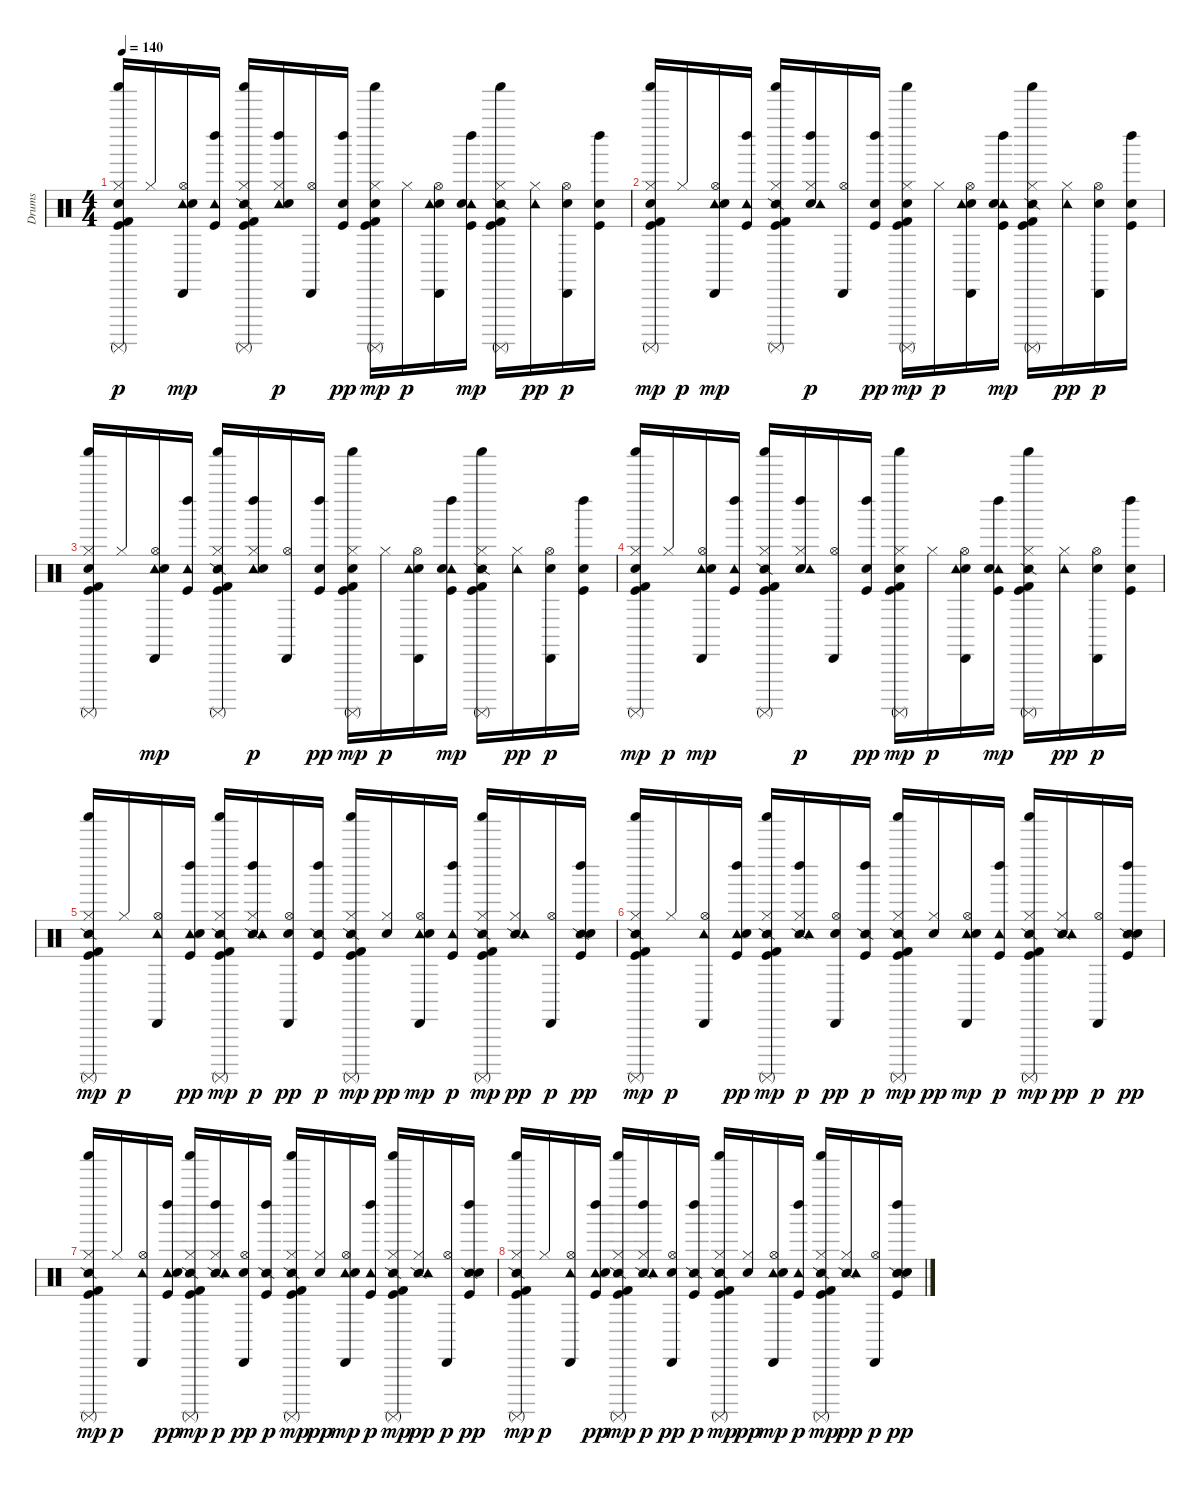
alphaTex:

\track ("Drums" "Drums") {instrument percussion}
\staff {score}
\articulation defaults
\ts (4 4)
\tempo 140
\clef neutral
\ks c
("Kick (hit)" "Kick (hit) 2" "Hi-Hat (closed)" "Shaker (hit)" "Surdo (mute)" "Snare (hit) 2").16{dy p} "Hi-Hat (closed)".16 ("Hi-Hat (open)" "Tambourine (hit)" "Cabasa (hit)" "Snare (hit) 2").16{dy mp} ("Kick (hit)" "Tambourine (hit)" "Left Maraca (hit)").16 ("Snare (side stick) 2" "Kick (hit)" "Kick (hit) 2" "Hi-Hat (closed)" "Shaker (hit)" "Surdo (mute)").16 ("Hi-Hat (closed)" "Tambourine (hit)" "Left Maraca (hit)" "Snare (hit) 2").16{dy p} ("Hi-Hat (open)" "Cabasa (hit)").16 ("Kick (hit)" "Left Maraca (hit)" "Snare (hit) 2").16{dy pp} ("Kick (hit)" "Kick (hit) 2" "Hi-Hat (closed)" "Shaker (hit)" "Surdo (mute)" "Snare (hit) 2").16{dy mp} "Hi-Hat (closed)".16{dy p} ("Hand Clap (hit)" "Hi-Hat (open)" "Tambourine (hit)" "Cabasa (hit)").16 ("Kick (hit)" "Tambourine (hit)" "Left Maraca (hit)" "Snare (hit) 2").16{dy mp} ("Snare (side stick) 2" "Kick (hit)" "Kick (hit) 2" "Hi-Hat (closed)" "Shaker (hit)" "Surdo (mute)").16 ("Hi-Hat (closed)" "Tambourine (hit)").16{dy pp} ("Hand Clap (hit)" "Hi-Hat (open)" "Cabasa (hit)").16{dy p} ("Kick (hit)" "Left Maraca (hit)" "Snare (hit) 2").16 |
("Kick (hit)" "Kick (hit) 2" "Hand Clap (hit)" "Hi-Hat (closed)" "Shaker (hit)" "Surdo (mute)").16{dy mp} "Hi-Hat (closed)".16{dy p} ("Hi-Hat (open)" "Tambourine (hit)" "Cabasa (hit)" "Snare (hit) 2").16{dy mp} ("Kick (hit)" "Tambourine (hit)" "Left Maraca (hit)").16 ("Snare (side stick) 2" "Kick (hit)" "Kick (hit) 2" "Hi-Hat (closed)" "Shaker (hit)" "Surdo (mute)").16 ("Hand Clap (hit)" "Hi-Hat (closed)" "Tambourine (hit)" "Left Maraca (hit)").16{dy p} ("Hi-Hat (open)" "Cabasa (hit)").16 ("Kick (hit)" "Left Maraca (hit)" "Snare (hit) 2").16{dy pp} ("Kick (hit)" "Kick (hit) 2" "Hi-Hat (closed)" "Shaker (hit)" "Surdo (mute)" "Snare (hit) 2").16{dy mp} "Hi-Hat (closed)".16{dy p} ("Hand Clap (hit)" "Hi-Hat (open)" "Tambourine (hit)" "Cabasa (hit)").16 ("Kick (hit)" "Tambourine (hit)" "Left Maraca (hit)" "Snare (hit) 2").16{dy mp} ("Snare (side stick) 2" "Kick (hit)" "Kick (hit) 2" "Hi-Hat (closed)" "Shaker (hit)" "Surdo (mute)").16 ("Hi-Hat (closed)" "Tambourine (hit)").16{dy pp} ("Hand Clap (hit)" "Hi-Hat (open)" "Cabasa (hit)").16{dy p} ("Kick (hit)" "Left Maraca (hit)" "Snare (hit) 2").16 |
("Kick (hit)" "Kick (hit) 2" "Hi-Hat (closed)" "Shaker (hit)" "Surdo (mute)" "Snare (hit) 2").16 "Hi-Hat (closed)".16 ("Hi-Hat (open)" "Tambourine (hit)" "Cabasa (hit)" "Snare (hit) 2").16{dy mp} ("Kick (hit)" "Tambourine (hit)" "Left Maraca (hit)").16 ("Snare (side stick) 2" "Kick (hit)" "Kick (hit) 2" "Hi-Hat (closed)" "Shaker (hit)" "Surdo (mute)").16 ("Hi-Hat (closed)" "Tambourine (hit)" "Left Maraca (hit)" "Snare (hit) 2").16{dy p} ("Hi-Hat (open)" "Cabasa (hit)").16 ("Kick (hit)" "Left Maraca (hit)" "Snare (hit) 2").16{dy pp} ("Kick (hit)" "Kick (hit) 2" "Hi-Hat (closed)" "Shaker (hit)" "Surdo (mute)" "Snare (hit) 2").16{dy mp} "Hi-Hat (closed)".16{dy p} ("Hand Clap (hit)" "Hi-Hat (open)" "Tambourine (hit)" "Cabasa (hit)").16 ("Kick (hit)" "Tambourine (hit)" "Left Maraca (hit)" "Snare (hit) 2").16{dy mp} ("Snare (side stick) 2" "Kick (hit)" "Kick (hit) 2" "Hi-Hat (closed)" "Shaker (hit)" "Surdo (mute)").16 ("Hi-Hat (closed)" "Tambourine (hit)").16{dy pp} ("Hand Clap (hit)" "Hi-Hat (open)" "Cabasa (hit)").16{dy p} ("Kick (hit)" "Left Maraca (hit)" "Snare (hit) 2").16 |
("Kick (hit)" "Kick (hit) 2" "Hand Clap (hit)" "Hi-Hat (closed)" "Shaker (hit)" "Surdo (mute)").16{dy mp} "Hi-Hat (closed)".16{dy p} ("Hi-Hat (open)" "Tambourine (hit)" "Cabasa (hit)" "Snare (hit) 2").16{dy mp} ("Kick (hit)" "Tambourine (hit)" "Left Maraca (hit)").16 ("Snare (side stick) 2" "Kick (hit)" "Kick (hit) 2" "Hi-Hat (closed)" "Shaker (hit)" "Surdo (mute)").16 ("Hand Clap (hit)" "Hi-Hat (closed)" "Tambourine (hit)" "Left Maraca (hit)").16{dy p} ("Hi-Hat (open)" "Cabasa (hit)").16 ("Kick (hit)" "Left Maraca (hit)" "Snare (hit) 2").16{dy pp} ("Kick (hit)" "Kick (hit) 2" "Hi-Hat (closed)" "Shaker (hit)" "Surdo (mute)" "Snare (hit) 2").16{dy mp} "Hi-Hat (closed)".16{dy p} ("Hand Clap (hit)" "Hi-Hat (open)" "Tambourine (hit)" "Cabasa (hit)").16 ("Kick (hit)" "Tambourine (hit)" "Left Maraca (hit)" "Snare (hit) 2").16{dy mp} ("Snare (side stick) 2" "Kick (hit)" "Kick (hit) 2" "Hi-Hat (closed)" "Shaker (hit)" "Surdo (mute)").16 ("Hi-Hat (closed)" "Tambourine (hit)").16{dy pp} ("Hand Clap (hit)" "Hi-Hat (open)" "Cabasa (hit)").16{dy p} ("Kick (hit)" "Left Maraca (hit)" "Snare (hit) 2").16 |
("Snare (side stick) 2" "Kick (hit)" "Kick (hit) 2" "Hi-Hat (closed)" "Shaker (hit)" "Surdo (mute)").16{dy mp} "Hi-Hat (closed)".16{dy p} ("Hi-Hat (open)" "Tambourine (hit)" "Cabasa (hit)").16 ("Kick (hit)" "Tambourine (hit)" "Left Maraca (hit)" "Electric Snare (hit)").16{dy pp} ("Snare (side stick) 2" "Kick (hit)" "Kick (hit) 2" "Hi-Hat (closed)" "Shaker (hit)" "Surdo (mute)").16{dy mp} ("Snare (side stick) 2" "Hi-Hat (closed)" "Tambourine (hit)" "Left Maraca (hit)").16{dy p} ("Hi-Hat (open)" "Cabasa (hit)" "Snare (hit) 2").16{dy pp} ("Snare (side stick) 2" "Kick (hit)" "Left Maraca (hit)").16{dy p} ("Snare (side stick) 2" "Kick (hit)" "Kick (hit) 2" "Hi-Hat (closed)" "Shaker (hit)" "Surdo (mute)").16{dy mp} ("Hi-Hat (closed)" "Electric Snare (hit)").16{dy pp} ("Hi-Hat (open)" "Tambourine (hit)" "Cabasa (hit)" "Snare (hit) 2").16{dy mp} ("Kick (hit)" "Tambourine (hit)" "Left Maraca (hit)").16{dy p} ("Snare (side stick) 2" "Kick (hit)" "Kick (hit) 2" "Hi-Hat (closed)" "Shaker (hit)" "Surdo (mute)").16{dy mp} ("Snare (side stick) 2" "Hi-Hat (closed)" "Tambourine (hit)").16{dy pp} ("Hi-Hat (open)" "Cabasa (hit)").16{dy p} ("Snare (side stick) 2" "Kick (hit)" "Left Maraca (hit)" "Snare (hit) 2").16{dy pp} |
("Snare (side stick) 2" "Kick (hit)" "Kick (hit) 2" "Hi-Hat (closed)" "Shaker (hit)" "Surdo (mute)").16{dy mp} "Hi-Hat (closed)".16{dy p} ("Hi-Hat (open)" "Tambourine (hit)" "Cabasa (hit)").16 ("Kick (hit)" "Tambourine (hit)" "Left Maraca (hit)" "Electric Snare (hit)").16{dy pp} ("Snare (side stick) 2" "Kick (hit)" "Kick (hit) 2" "Hi-Hat (closed)" "Shaker (hit)" "Surdo (mute)").16{dy mp} ("Snare (side stick) 2" "Hi-Hat (closed)" "Tambourine (hit)" "Left Maraca (hit)").16{dy p} ("Hi-Hat (open)" "Cabasa (hit)" "Snare (hit) 2").16{dy pp} ("Snare (side stick) 2" "Kick (hit)" "Left Maraca (hit)").16{dy p} ("Snare (side stick) 2" "Kick (hit)" "Kick (hit) 2" "Hi-Hat (closed)" "Shaker (hit)" "Surdo (mute)").16{dy mp} ("Hi-Hat (closed)" "Electric Snare (hit)").16{dy pp} ("Hi-Hat (open)" "Tambourine (hit)" "Cabasa (hit)" "Snare (hit) 2").16{dy mp} ("Kick (hit)" "Tambourine (hit)" "Left Maraca (hit)").16{dy p} ("Snare (side stick) 2" "Kick (hit)" "Kick (hit) 2" "Hi-Hat (closed)" "Shaker (hit)" "Surdo (mute)").16{dy mp} ("Snare (side stick) 2" "Hi-Hat (closed)" "Tambourine (hit)").16{dy pp} ("Hi-Hat (open)" "Cabasa (hit)").16{dy p} ("Snare (side stick) 2" "Kick (hit)" "Left Maraca (hit)" "Snare (hit) 2").16{dy pp} |
("Snare (side stick) 2" "Kick (hit)" "Kick (hit) 2" "Hi-Hat (closed)" "Shaker (hit)" "Surdo (mute)").16{dy mp} "Hi-Hat (closed)".16{dy p} ("Hi-Hat (open)" "Tambourine (hit)" "Cabasa (hit)").16 ("Kick (hit)" "Tambourine (hit)" "Left Maraca (hit)" "Electric Snare (hit)").16{dy pp} ("Snare (side stick) 2" "Kick (hit)" "Kick (hit) 2" "Hi-Hat (closed)" "Shaker (hit)" "Surdo (mute)").16{dy mp} ("Snare (side stick) 2" "Hi-Hat (closed)" "Tambourine (hit)" "Left Maraca (hit)").16{dy p} ("Hi-Hat (open)" "Cabasa (hit)" "Snare (hit) 2").16{dy pp} ("Snare (side stick) 2" "Kick (hit)" "Left Maraca (hit)").16{dy p} ("Snare (side stick) 2" "Kick (hit)" "Kick (hit) 2" "Hi-Hat (closed)" "Shaker (hit)" "Surdo (mute)").16{dy mp} ("Hi-Hat (closed)" "Electric Snare (hit)").16{dy pp} ("Hi-Hat (open)" "Tambourine (hit)" "Cabasa (hit)" "Snare (hit) 2").16{dy mp} ("Kick (hit)" "Tambourine (hit)" "Left Maraca (hit)").16{dy p} ("Snare (side stick) 2" "Kick (hit)" "Kick (hit) 2" "Hi-Hat (closed)" "Shaker (hit)" "Surdo (mute)").16{dy mp} ("Snare (side stick) 2" "Hi-Hat (closed)" "Tambourine (hit)").16{dy pp} ("Hi-Hat (open)" "Cabasa (hit)").16{dy p} ("Snare (side stick) 2" "Kick (hit)" "Left Maraca (hit)" "Snare (hit) 2").16{dy pp} |
("Snare (side stick) 2" "Kick (hit)" "Kick (hit) 2" "Hi-Hat (closed)" "Shaker (hit)" "Surdo (mute)").16{dy mp} "Hi-Hat (closed)".16{dy p} ("Hi-Hat (open)" "Tambourine (hit)" "Cabasa (hit)").16 ("Kick (hit)" "Tambourine (hit)" "Left Maraca (hit)" "Electric Snare (hit)").16{dy pp} ("Snare (side stick) 2" "Kick (hit)" "Kick (hit) 2" "Hi-Hat (closed)" "Shaker (hit)" "Surdo (mute)").16{dy mp} ("Snare (side stick) 2" "Hi-Hat (closed)" "Tambourine (hit)" "Left Maraca (hit)").16{dy p} ("Hi-Hat (open)" "Cabasa (hit)" "Snare (hit) 2").16{dy pp} ("Snare (side stick) 2" "Kick (hit)" "Left Maraca (hit)").16{dy p} ("Snare (side stick) 2" "Kick (hit)" "Kick (hit) 2" "Hi-Hat (closed)" "Shaker (hit)" "Surdo (mute)").16{dy mp} ("Hi-Hat (closed)" "Electric Snare (hit)").16{dy pp} ("Hi-Hat (open)" "Tambourine (hit)" "Cabasa (hit)" "Snare (hit) 2").16{dy mp} ("Kick (hit)" "Tambourine (hit)" "Left Maraca (hit)").16{dy p} ("Snare (side stick) 2" "Kick (hit)" "Kick (hit) 2" "Hi-Hat (closed)" "Shaker (hit)" "Surdo (mute)").16{dy mp} ("Snare (side stick) 2" "Hi-Hat (closed)" "Tambourine (hit)").16{dy pp} ("Hi-Hat (open)" "Cabasa (hit)").16{dy p} ("Snare (side stick) 2" "Kick (hit)" "Left Maraca (hit)" "Snare (hit) 2").16{dy pp}
